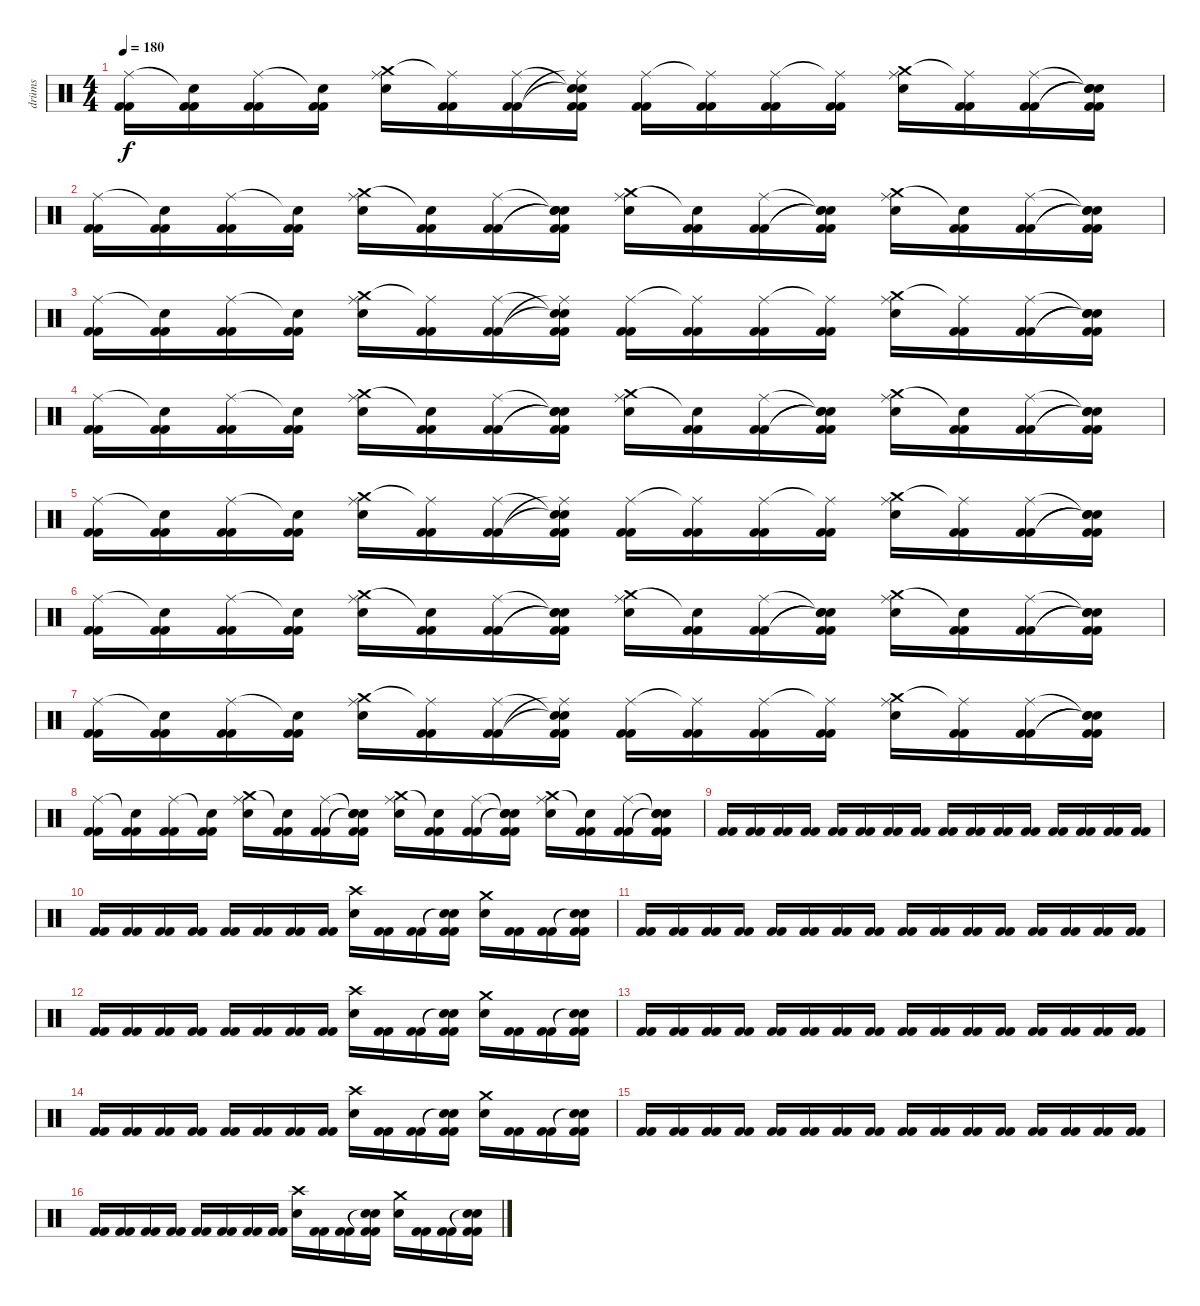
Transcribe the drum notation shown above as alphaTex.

\track ("drüms" "drüms") {instrument percussion}
\staff {score}
\articulation defaults
\ts (4 4)
\tempo 180
\clef neutral
\ks c
("Ride (middle)" "Kick (hit) 2" "Kick (hit) 2").16{dy f} ("Snare (hit)"{t} "Kick (hit) 2" "Kick (hit) 2").16 ("Ride (middle)" "Kick (hit) 2" "Kick (hit) 2").16 ("Snare (hit)"{t} "Kick (hit) 2" "Kick (hit) 2").16 ("Crash medium (hit)" "Electric Snare (hit)" "Ride (middle)").16 ("Ride (middle)"{t} "Kick (hit) 2" "Kick (hit) 2").16 ("Ride (middle)" "Kick (hit) 2" "Kick (hit) 2").16 ("Snare (hit)"{t} "Snare (hit)"{t} "Ride (middle)"{t} "Kick (hit) 2" "Kick (hit) 2").16 ("Ride (middle)" "Kick (hit) 2" "Kick (hit) 2").16 ("Ride (middle)"{t} "Kick (hit) 2" "Kick (hit) 2").16 ("Ride (middle)" "Kick (hit) 2" "Kick (hit) 2").16 ("Ride (middle)"{t} "Kick (hit) 2" "Kick (hit) 2").16 ("Crash medium (hit)" "Electric Snare (hit)" "Ride (middle)").16 ("Ride (middle)"{t} "Kick (hit) 2" "Kick (hit) 2").16 ("Ride (middle)" "Kick (hit) 2" "Kick (hit) 2").16 ("Snare (hit)"{t} "Snare (hit)"{t} "Snare (hit)"{t} "Kick (hit) 2" "Kick (hit) 2").16 |
("Ride (middle)" "Kick (hit) 2" "Kick (hit) 2").16 ("Snare (hit)"{t} "Kick (hit) 2" "Kick (hit) 2").16 ("Ride (middle)" "Kick (hit) 2" "Kick (hit) 2").16 ("Snare (hit)"{t} "Kick (hit) 2" "Kick (hit) 2").16 ("Crash medium (hit)" "Electric Snare (hit)" "Ride (middle)").16 ("Snare (hit)"{t} "Kick (hit) 2" "Kick (hit) 2").16 ("Ride (middle)" "Kick (hit) 2" "Kick (hit) 2").16 ("Snare (hit)"{t} "Snare (hit)"{t} "Snare (hit)"{t} "Kick (hit) 2" "Kick (hit) 2").16 ("Crash medium (hit)" "Electric Snare (hit)" "Ride (middle)").16 ("Snare (hit)"{t} "Kick (hit) 2" "Kick (hit) 2").16 ("Ride (middle)" "Kick (hit) 2" "Kick (hit) 2").16 ("Snare (hit)"{t} "Snare (hit)"{t} "Snare (hit)"{t} "Kick (hit) 2" "Kick (hit) 2").16 ("Crash medium (hit)" "Electric Snare (hit)" "Ride (middle)").16 ("Snare (hit)"{t} "Kick (hit) 2" "Kick (hit) 2").16 ("Ride (middle)" "Kick (hit) 2" "Kick (hit) 2").16 ("Snare (hit)"{t} "Snare (hit)"{t} "Snare (hit)"{t} "Kick (hit) 2" "Kick (hit) 2").16 |
("Ride (middle)" "Kick (hit) 2" "Kick (hit) 2").16 ("Snare (hit)"{t} "Kick (hit) 2" "Kick (hit) 2").16 ("Ride (middle)" "Kick (hit) 2" "Kick (hit) 2").16 ("Snare (hit)"{t} "Kick (hit) 2" "Kick (hit) 2").16 ("Crash medium (hit)" "Electric Snare (hit)" "Ride (middle)").16 ("Ride (middle)"{t} "Kick (hit) 2" "Kick (hit) 2").16 ("Ride (middle)" "Kick (hit) 2" "Kick (hit) 2").16 ("Snare (hit)"{t} "Snare (hit)"{t} "Ride (middle)"{t} "Kick (hit) 2" "Kick (hit) 2").16 ("Ride (middle)" "Kick (hit) 2" "Kick (hit) 2").16 ("Ride (middle)"{t} "Kick (hit) 2" "Kick (hit) 2").16 ("Ride (middle)" "Kick (hit) 2" "Kick (hit) 2").16 ("Ride (middle)"{t} "Kick (hit) 2" "Kick (hit) 2").16 ("Crash medium (hit)" "Electric Snare (hit)" "Ride (middle)").16 ("Ride (middle)"{t} "Kick (hit) 2" "Kick (hit) 2").16 ("Ride (middle)" "Kick (hit) 2" "Kick (hit) 2").16 ("Snare (hit)"{t} "Snare (hit)"{t} "Snare (hit)"{t} "Kick (hit) 2" "Kick (hit) 2").16 |
("Ride (middle)" "Kick (hit) 2" "Kick (hit) 2").16 ("Snare (hit)"{t} "Kick (hit) 2" "Kick (hit) 2").16 ("Ride (middle)" "Kick (hit) 2" "Kick (hit) 2").16 ("Snare (hit)"{t} "Kick (hit) 2" "Kick (hit) 2").16 ("Crash medium (hit)" "Electric Snare (hit)" "Ride (middle)").16 ("Snare (hit)"{t} "Kick (hit) 2" "Kick (hit) 2").16 ("Ride (middle)" "Kick (hit) 2" "Kick (hit) 2").16 ("Snare (hit)"{t} "Snare (hit)"{t} "Snare (hit)"{t} "Kick (hit) 2" "Kick (hit) 2").16 ("Crash medium (hit)" "Electric Snare (hit)" "Ride (middle)").16 ("Snare (hit)"{t} "Kick (hit) 2" "Kick (hit) 2").16 ("Ride (middle)" "Kick (hit) 2" "Kick (hit) 2").16 ("Snare (hit)"{t} "Snare (hit)"{t} "Snare (hit)"{t} "Kick (hit) 2" "Kick (hit) 2").16 ("Crash medium (hit)" "Electric Snare (hit)" "Ride (middle)").16 ("Snare (hit)"{t} "Kick (hit) 2" "Kick (hit) 2").16 ("Ride (middle)" "Kick (hit) 2" "Kick (hit) 2").16 ("Snare (hit)"{t} "Snare (hit)"{t} "Snare (hit)"{t} "Kick (hit) 2" "Kick (hit) 2").16 |
("Ride (middle)" "Kick (hit) 2" "Kick (hit) 2").16 ("Snare (hit)"{t} "Kick (hit) 2" "Kick (hit) 2").16 ("Ride (middle)" "Kick (hit) 2" "Kick (hit) 2").16 ("Snare (hit)"{t} "Kick (hit) 2" "Kick (hit) 2").16 ("Crash medium (hit)" "Electric Snare (hit)" "Ride (middle)").16 ("Ride (middle)"{t} "Kick (hit) 2" "Kick (hit) 2").16 ("Ride (middle)" "Kick (hit) 2" "Kick (hit) 2").16 ("Snare (hit)"{t} "Snare (hit)"{t} "Ride (middle)"{t} "Kick (hit) 2" "Kick (hit) 2").16 ("Ride (middle)" "Kick (hit) 2" "Kick (hit) 2").16 ("Ride (middle)"{t} "Kick (hit) 2" "Kick (hit) 2").16 ("Ride (middle)" "Kick (hit) 2" "Kick (hit) 2").16 ("Ride (middle)"{t} "Kick (hit) 2" "Kick (hit) 2").16 ("Crash medium (hit)" "Electric Snare (hit)" "Ride (middle)").16 ("Ride (middle)"{t} "Kick (hit) 2" "Kick (hit) 2").16 ("Ride (middle)" "Kick (hit) 2" "Kick (hit) 2").16 ("Snare (hit)"{t} "Snare (hit)"{t} "Snare (hit)"{t} "Kick (hit) 2" "Kick (hit) 2").16 |
("Ride (middle)" "Kick (hit) 2" "Kick (hit) 2").16 ("Snare (hit)"{t} "Kick (hit) 2" "Kick (hit) 2").16 ("Ride (middle)" "Kick (hit) 2" "Kick (hit) 2").16 ("Snare (hit)"{t} "Kick (hit) 2" "Kick (hit) 2").16 ("Crash medium (hit)" "Electric Snare (hit)" "Ride (middle)").16 ("Snare (hit)"{t} "Kick (hit) 2" "Kick (hit) 2").16 ("Ride (middle)" "Kick (hit) 2" "Kick (hit) 2").16 ("Snare (hit)"{t} "Snare (hit)"{t} "Snare (hit)"{t} "Kick (hit) 2" "Kick (hit) 2").16 ("Crash medium (hit)" "Electric Snare (hit)" "Ride (middle)").16 ("Snare (hit)"{t} "Kick (hit) 2" "Kick (hit) 2").16 ("Ride (middle)" "Kick (hit) 2" "Kick (hit) 2").16 ("Snare (hit)"{t} "Snare (hit)"{t} "Snare (hit)"{t} "Kick (hit) 2" "Kick (hit) 2").16 ("Crash medium (hit)" "Electric Snare (hit)" "Ride (middle)").16 ("Snare (hit)"{t} "Kick (hit) 2" "Kick (hit) 2").16 ("Ride (middle)" "Kick (hit) 2" "Kick (hit) 2").16 ("Snare (hit)"{t} "Snare (hit)"{t} "Snare (hit)"{t} "Kick (hit) 2" "Kick (hit) 2").16 |
("Ride (middle)" "Kick (hit) 2" "Kick (hit) 2").16 ("Snare (hit)"{t} "Kick (hit) 2" "Kick (hit) 2").16 ("Ride (middle)" "Kick (hit) 2" "Kick (hit) 2").16 ("Snare (hit)"{t} "Kick (hit) 2" "Kick (hit) 2").16 ("Crash medium (hit)" "Electric Snare (hit)" "Ride (middle)").16 ("Ride (middle)"{t} "Kick (hit) 2" "Kick (hit) 2").16 ("Ride (middle)" "Kick (hit) 2" "Kick (hit) 2").16 ("Snare (hit)"{t} "Snare (hit)"{t} "Ride (middle)"{t} "Kick (hit) 2" "Kick (hit) 2").16 ("Ride (middle)" "Kick (hit) 2" "Kick (hit) 2").16 ("Ride (middle)"{t} "Kick (hit) 2" "Kick (hit) 2").16 ("Ride (middle)" "Kick (hit) 2" "Kick (hit) 2").16 ("Ride (middle)"{t} "Kick (hit) 2" "Kick (hit) 2").16 ("Crash medium (hit)" "Electric Snare (hit)" "Ride (middle)").16 ("Ride (middle)"{t} "Kick (hit) 2" "Kick (hit) 2").16 ("Ride (middle)" "Kick (hit) 2" "Kick (hit) 2").16 ("Snare (hit)"{t} "Snare (hit)"{t} "Snare (hit)"{t} "Kick (hit) 2" "Kick (hit) 2").16 |
("Ride (middle)" "Kick (hit) 2" "Kick (hit) 2").16 ("Snare (hit)"{t} "Kick (hit) 2" "Kick (hit) 2").16 ("Ride (middle)" "Kick (hit) 2" "Kick (hit) 2").16 ("Snare (hit)"{t} "Kick (hit) 2" "Kick (hit) 2").16 ("Crash medium (hit)" "Electric Snare (hit)" "Ride (middle)").16 ("Snare (hit)"{t} "Kick (hit) 2" "Kick (hit) 2").16 ("Ride (middle)" "Kick (hit) 2" "Kick (hit) 2").16 ("Snare (hit)"{t} "Snare (hit)"{t} "Snare (hit)"{t} "Kick (hit) 2" "Kick (hit) 2").16 ("Crash medium (hit)" "Electric Snare (hit)" "Ride (middle)").16 ("Snare (hit)"{t} "Kick (hit) 2" "Kick (hit) 2").16 ("Ride (middle)" "Kick (hit) 2" "Kick (hit) 2").16 ("Snare (hit)"{t} "Snare (hit)"{t} "Snare (hit)"{t} "Kick (hit) 2" "Kick (hit) 2").16 ("Crash medium (hit)" "Electric Snare (hit)" "Ride (middle)").16 ("Snare (hit)"{t} "Kick (hit) 2" "Kick (hit) 2").16 ("Ride (middle)" "Kick (hit) 2" "Kick (hit) 2").16 ("Snare (hit)"{t} "Snare (hit)"{t} "Snare (hit)"{t} "Kick (hit) 2" "Kick (hit) 2").16 |
("Kick (hit) 2" "Kick (hit) 2").16 ("Kick (hit) 2" "Kick (hit) 2").16 ("Kick (hit) 2" "Kick (hit) 2").16 ("Kick (hit) 2" "Kick (hit) 2").16 ("Kick (hit) 2" "Kick (hit) 2").16 ("Kick (hit) 2" "Kick (hit) 2").16 ("Kick (hit) 2" "Kick (hit) 2").16 ("Kick (hit) 2" "Kick (hit) 2").16 ("Kick (hit) 2" "Kick (hit) 2").16 ("Kick (hit) 2" "Kick (hit) 2").16 ("Kick (hit) 2" "Kick (hit) 2").16 ("Kick (hit) 2" "Kick (hit) 2").16 ("Kick (hit) 2" "Kick (hit) 2").16 ("Kick (hit) 2" "Kick (hit) 2").16 ("Kick (hit) 2" "Kick (hit) 2").16 ("Kick (hit) 2" "Kick (hit) 2").16 |
("Kick (hit) 2" "Kick (hit) 2").16 ("Kick (hit) 2" "Kick (hit) 2").16 ("Kick (hit) 2" "Kick (hit) 2").16 ("Kick (hit) 2" "Kick (hit) 2").16 ("Kick (hit) 2" "Kick (hit) 2").16 ("Kick (hit) 2" "Kick (hit) 2").16 ("Kick (hit) 2" "Kick (hit) 2").16 ("Kick (hit) 2" "Kick (hit) 2").16 ("Crash high (hit)" "Electric Snare (hit)").16 ("Kick (hit) 2" "Kick (hit) 2").16 ("Kick (hit) 2" "Kick (hit) 2").16 ("Snare (hit)"{t} "Snare (hit)"{t} "Kick (hit) 2" "Kick (hit) 2").16 ("Crash medium (hit)" "Electric Snare (hit)").16 ("Kick (hit) 2" "Kick (hit) 2").16 ("Kick (hit) 2" "Kick (hit) 2").16 ("Snare (hit)"{t} "Snare (hit)"{t} "Kick (hit) 2" "Kick (hit) 2").16 |
("Kick (hit) 2" "Kick (hit) 2").16 ("Kick (hit) 2" "Kick (hit) 2").16 ("Kick (hit) 2" "Kick (hit) 2").16 ("Kick (hit) 2" "Kick (hit) 2").16 ("Kick (hit) 2" "Kick (hit) 2").16 ("Kick (hit) 2" "Kick (hit) 2").16 ("Kick (hit) 2" "Kick (hit) 2").16 ("Kick (hit) 2" "Kick (hit) 2").16 ("Kick (hit) 2" "Kick (hit) 2").16 ("Kick (hit) 2" "Kick (hit) 2").16 ("Kick (hit) 2" "Kick (hit) 2").16 ("Kick (hit) 2" "Kick (hit) 2").16 ("Kick (hit) 2" "Kick (hit) 2").16 ("Kick (hit) 2" "Kick (hit) 2").16 ("Kick (hit) 2" "Kick (hit) 2").16 ("Kick (hit) 2" "Kick (hit) 2").16 |
("Kick (hit) 2" "Kick (hit) 2").16 ("Kick (hit) 2" "Kick (hit) 2").16 ("Kick (hit) 2" "Kick (hit) 2").16 ("Kick (hit) 2" "Kick (hit) 2").16 ("Kick (hit) 2" "Kick (hit) 2").16 ("Kick (hit) 2" "Kick (hit) 2").16 ("Kick (hit) 2" "Kick (hit) 2").16 ("Kick (hit) 2" "Kick (hit) 2").16 ("Crash high (hit)" "Electric Snare (hit)").16 ("Kick (hit) 2" "Kick (hit) 2").16 ("Kick (hit) 2" "Kick (hit) 2").16 ("Snare (hit)"{t} "Snare (hit)"{t} "Kick (hit) 2" "Kick (hit) 2").16 ("Crash medium (hit)" "Electric Snare (hit)").16 ("Kick (hit) 2" "Kick (hit) 2").16 ("Kick (hit) 2" "Kick (hit) 2").16 ("Snare (hit)"{t} "Snare (hit)"{t} "Kick (hit) 2" "Kick (hit) 2").16 |
("Kick (hit) 2" "Kick (hit) 2").16 ("Kick (hit) 2" "Kick (hit) 2").16 ("Kick (hit) 2" "Kick (hit) 2").16 ("Kick (hit) 2" "Kick (hit) 2").16 ("Kick (hit) 2" "Kick (hit) 2").16 ("Kick (hit) 2" "Kick (hit) 2").16 ("Kick (hit) 2" "Kick (hit) 2").16 ("Kick (hit) 2" "Kick (hit) 2").16 ("Kick (hit) 2" "Kick (hit) 2").16 ("Kick (hit) 2" "Kick (hit) 2").16 ("Kick (hit) 2" "Kick (hit) 2").16 ("Kick (hit) 2" "Kick (hit) 2").16 ("Kick (hit) 2" "Kick (hit) 2").16 ("Kick (hit) 2" "Kick (hit) 2").16 ("Kick (hit) 2" "Kick (hit) 2").16 ("Kick (hit) 2" "Kick (hit) 2").16 |
("Kick (hit) 2" "Kick (hit) 2").16 ("Kick (hit) 2" "Kick (hit) 2").16 ("Kick (hit) 2" "Kick (hit) 2").16 ("Kick (hit) 2" "Kick (hit) 2").16 ("Kick (hit) 2" "Kick (hit) 2").16 ("Kick (hit) 2" "Kick (hit) 2").16 ("Kick (hit) 2" "Kick (hit) 2").16 ("Kick (hit) 2" "Kick (hit) 2").16 ("Crash high (hit)" "Electric Snare (hit)").16 ("Kick (hit) 2" "Kick (hit) 2").16 ("Kick (hit) 2" "Kick (hit) 2").16 ("Snare (hit)"{t} "Snare (hit)"{t} "Kick (hit) 2" "Kick (hit) 2").16 ("Crash medium (hit)" "Electric Snare (hit)").16 ("Kick (hit) 2" "Kick (hit) 2").16 ("Kick (hit) 2" "Kick (hit) 2").16 ("Snare (hit)"{t} "Snare (hit)"{t} "Kick (hit) 2" "Kick (hit) 2").16 |
("Kick (hit) 2" "Kick (hit) 2").16 ("Kick (hit) 2" "Kick (hit) 2").16 ("Kick (hit) 2" "Kick (hit) 2").16 ("Kick (hit) 2" "Kick (hit) 2").16 ("Kick (hit) 2" "Kick (hit) 2").16 ("Kick (hit) 2" "Kick (hit) 2").16 ("Kick (hit) 2" "Kick (hit) 2").16 ("Kick (hit) 2" "Kick (hit) 2").16 ("Kick (hit) 2" "Kick (hit) 2").16 ("Kick (hit) 2" "Kick (hit) 2").16 ("Kick (hit) 2" "Kick (hit) 2").16 ("Kick (hit) 2" "Kick (hit) 2").16 ("Kick (hit) 2" "Kick (hit) 2").16 ("Kick (hit) 2" "Kick (hit) 2").16 ("Kick (hit) 2" "Kick (hit) 2").16 ("Kick (hit) 2" "Kick (hit) 2").16 |
("Kick (hit) 2" "Kick (hit) 2").16 ("Kick (hit) 2" "Kick (hit) 2").16 ("Kick (hit) 2" "Kick (hit) 2").16 ("Kick (hit) 2" "Kick (hit) 2").16 ("Kick (hit) 2" "Kick (hit) 2").16 ("Kick (hit) 2" "Kick (hit) 2").16 ("Kick (hit) 2" "Kick (hit) 2").16 ("Kick (hit) 2" "Kick (hit) 2").16 ("Crash high (hit)" "Electric Snare (hit)").16 ("Kick (hit) 2" "Kick (hit) 2").16 ("Kick (hit) 2" "Kick (hit) 2").16 ("Snare (hit)"{t} "Snare (hit)"{t} "Kick (hit) 2" "Kick (hit) 2").16 ("Crash medium (hit)" "Electric Snare (hit)").16 ("Kick (hit) 2" "Kick (hit) 2").16 ("Kick (hit) 2" "Kick (hit) 2").16 ("Snare (hit)"{t} "Snare (hit)"{t} "Kick (hit) 2" "Kick (hit) 2").16
